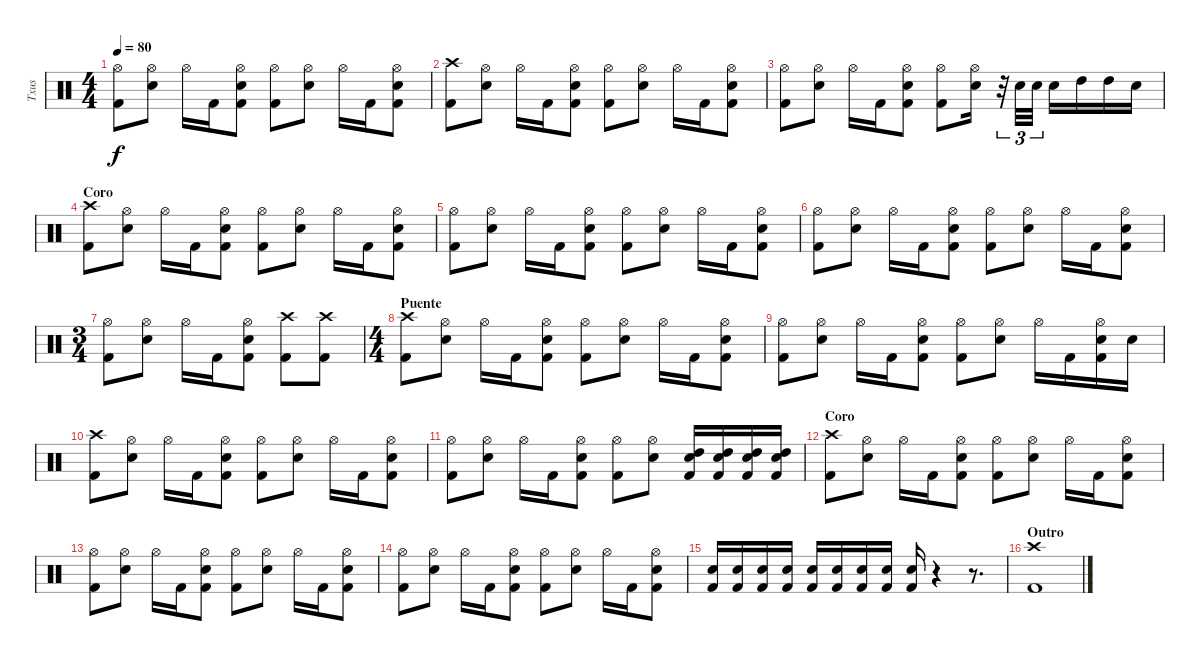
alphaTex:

\track ("Txus" "Txus") {instrument percussion}
\staff {score}
\articulation defaults
\ts (4 4)
\tempo 80
\clef neutral
\ks c
("Kick (hit) 2" "Hi-Hat (open)").8{dy f} ("Hi-Hat (open)" "Electric Snare (hit)").8 "Hi-Hat (open)".16 "Kick (hit) 2".16 ("Kick (hit) 2" "Hi-Hat (open)" "Electric Snare (hit)").8 ("Kick (hit) 2" "Hi-Hat (open)").8 ("Hi-Hat (open)" "Electric Snare (hit)").8 "Hi-Hat (open)".16 "Kick (hit) 2".16 ("Kick (hit) 2" "Hi-Hat (open)" "Electric Snare (hit)").8 |
("Kick (hit) 2" "Crash high (hit)").8 ("Hi-Hat (open)" "Electric Snare (hit)").8 "Hi-Hat (open)".16 "Kick (hit) 2".16 ("Kick (hit) 2" "Hi-Hat (open)" "Electric Snare (hit)").8 ("Kick (hit) 2" "Hi-Hat (open)").8 ("Hi-Hat (open)" "Electric Snare (hit)").8 "Hi-Hat (open)".16 "Kick (hit) 2".16 ("Kick (hit) 2" "Hi-Hat (open)" "Electric Snare (hit)").8 |
("Kick (hit) 2" "Hi-Hat (open)").8 ("Hi-Hat (open)" "Electric Snare (hit)").8 "Hi-Hat (open)".16 "Kick (hit) 2".16 ("Kick (hit) 2" "Hi-Hat (open)" "Electric Snare (hit)").8 ("Kick (hit) 2" "Hi-Hat (open)").8 ("Hi-Hat (open)" "Electric Snare (hit)").16 r.32{tu (3 2)} "Electric Snare (hit)".32{tu (3 2)} "Electric Snare (hit)".32{tu (3 2)} "Electric Snare (hit)".16 "High Tom (hit)".16 "High Tom (hit)".16 "Electric Snare (hit)".16 |
\section ("" "Coro")
("Kick (hit) 2" "Crash high (hit)").8 ("Hi-Hat (open)" "Electric Snare (hit)").8 "Hi-Hat (open)".16 "Kick (hit) 2".16 ("Kick (hit) 2" "Hi-Hat (open)" "Electric Snare (hit)").8 ("Kick (hit) 2" "Hi-Hat (open)").8 ("Hi-Hat (open)" "Electric Snare (hit)").8 "Hi-Hat (open)".16 "Kick (hit) 2".16 ("Kick (hit) 2" "Hi-Hat (open)" "Electric Snare (hit)").8 |
("Kick (hit) 2" "Hi-Hat (open)").8 ("Hi-Hat (open)" "Electric Snare (hit)").8 "Hi-Hat (open)".16 "Kick (hit) 2".16 ("Kick (hit) 2" "Hi-Hat (open)" "Electric Snare (hit)").8 ("Kick (hit) 2" "Hi-Hat (open)").8 ("Hi-Hat (open)" "Electric Snare (hit)").8 "Hi-Hat (open)".16 "Kick (hit) 2".16 ("Kick (hit) 2" "Hi-Hat (open)" "Electric Snare (hit)").8 |
("Kick (hit) 2" "Hi-Hat (open)").8 ("Hi-Hat (open)" "Electric Snare (hit)").8 "Hi-Hat (open)".16 "Kick (hit) 2".16 ("Kick (hit) 2" "Hi-Hat (open)" "Electric Snare (hit)").8 ("Kick (hit) 2" "Hi-Hat (open)").8 ("Hi-Hat (open)" "Electric Snare (hit)").8 "Hi-Hat (open)".16 "Kick (hit) 2".16 ("Kick (hit) 2" "Hi-Hat (open)" "Electric Snare (hit)").8 |
\ts (3 4)
("Kick (hit) 2" "Hi-Hat (open)").8 ("Hi-Hat (open)" "Electric Snare (hit)").8 "Hi-Hat (open)".16 "Kick (hit) 2".16 ("Kick (hit) 2" "Hi-Hat (open)" "Electric Snare (hit)").8 ("Kick (hit) 2" "Crash high (hit)").8 ("Kick (hit) 2" "Crash high (hit)").8 |
\ts (4 4)
\section ("" "Puente")
("Kick (hit) 2" "Crash high (hit)").8 ("Hi-Hat (open)" "Electric Snare (hit)").8 "Hi-Hat (open)".16 "Kick (hit) 2".16 ("Kick (hit) 2" "Hi-Hat (open)" "Electric Snare (hit)").8 ("Kick (hit) 2" "Hi-Hat (open)").8 ("Hi-Hat (open)" "Electric Snare (hit)").8 "Hi-Hat (open)".16 "Kick (hit) 2".16 ("Kick (hit) 2" "Hi-Hat (open)" "Electric Snare (hit)").8 |
("Kick (hit) 2" "Hi-Hat (open)").8 ("Hi-Hat (open)" "Electric Snare (hit)").8 "Hi-Hat (open)".16 "Kick (hit) 2".16 ("Kick (hit) 2" "Hi-Hat (open)" "Electric Snare (hit)").8 ("Kick (hit) 2" "Hi-Hat (open)").8 ("Hi-Hat (open)" "Electric Snare (hit)").8 "Hi-Hat (open)".16 "Kick (hit) 2".16 ("Kick (hit) 2" "Hi-Hat (open)" "Electric Snare (hit)").16 "Electric Snare (hit)".16 |
("Kick (hit) 2" "Crash high (hit)").8 ("Hi-Hat (open)" "Electric Snare (hit)").8 "Hi-Hat (open)".16 "Kick (hit) 2".16 ("Kick (hit) 2" "Hi-Hat (open)" "Electric Snare (hit)").8 ("Kick (hit) 2" "Hi-Hat (open)").8 ("Hi-Hat (open)" "Electric Snare (hit)").8 "Hi-Hat (open)".16 "Kick (hit) 2".16 ("Kick (hit) 2" "Hi-Hat (open)" "Electric Snare (hit)").8 |
("Kick (hit) 2" "Hi-Hat (open)").8 ("Hi-Hat (open)" "Electric Snare (hit)").8 "Hi-Hat (open)".16 "Kick (hit) 2".16 ("Kick (hit) 2" "Hi-Hat (open)" "Electric Snare (hit)").8 ("Kick (hit) 2" "Hi-Hat (open)").8 ("Hi-Hat (open)" "Electric Snare (hit)").8 ("Electric Snare (hit)" "High Tom (hit)" "Kick (hit) 2").16 ("Electric Snare (hit)" "High Tom (hit)" "Kick (hit) 2").16 ("Electric Snare (hit)" "High Tom (hit)" "Kick (hit) 2").16 ("Electric Snare (hit)" "High Tom (hit)" "Kick (hit) 2").16 |
\section ("" "Coro")
("Kick (hit) 2" "Crash high (hit)").8 ("Hi-Hat (open)" "Electric Snare (hit)").8 "Hi-Hat (open)".16 "Kick (hit) 2".16 ("Kick (hit) 2" "Hi-Hat (open)" "Electric Snare (hit)").8 ("Kick (hit) 2" "Hi-Hat (open)").8 ("Hi-Hat (open)" "Electric Snare (hit)").8 "Hi-Hat (open)".16 "Kick (hit) 2".16 ("Kick (hit) 2" "Hi-Hat (open)" "Electric Snare (hit)").8 |
("Kick (hit) 2" "Hi-Hat (open)").8 ("Hi-Hat (open)" "Electric Snare (hit)").8 "Hi-Hat (open)".16 "Kick (hit) 2".16 ("Kick (hit) 2" "Hi-Hat (open)" "Electric Snare (hit)").8 ("Kick (hit) 2" "Hi-Hat (open)").8 ("Hi-Hat (open)" "Electric Snare (hit)").8 "Hi-Hat (open)".16 "Kick (hit) 2".16 ("Kick (hit) 2" "Hi-Hat (open)" "Electric Snare (hit)").8 |
("Kick (hit) 2" "Hi-Hat (open)").8 ("Hi-Hat (open)" "Electric Snare (hit)").8 "Hi-Hat (open)".16 "Kick (hit) 2".16 ("Kick (hit) 2" "Hi-Hat (open)" "Electric Snare (hit)").8 ("Kick (hit) 2" "Hi-Hat (open)").8 ("Hi-Hat (open)" "Electric Snare (hit)").8 "Hi-Hat (open)".16 "Kick (hit) 2".16 ("Kick (hit) 2" "Hi-Hat (open)" "Electric Snare (hit)").8 |
("Electric Snare (hit)" "Kick (hit) 2").16 ("Electric Snare (hit)" "Kick (hit) 2").16 ("Electric Snare (hit)" "Kick (hit) 2").16 ("Electric Snare (hit)" "Kick (hit) 2").16 ("Electric Snare (hit)" "Kick (hit) 2").16 ("Electric Snare (hit)" "Kick (hit) 2").16 ("Electric Snare (hit)" "Kick (hit) 2").16 ("Electric Snare (hit)" "Kick (hit) 2").16 ("Electric Snare (hit)" "Kick (hit) 2").16 r.4 r.8{d} |
\section ("" "Outro")
("Kick (hit) 2" "Crash high (hit)").1
